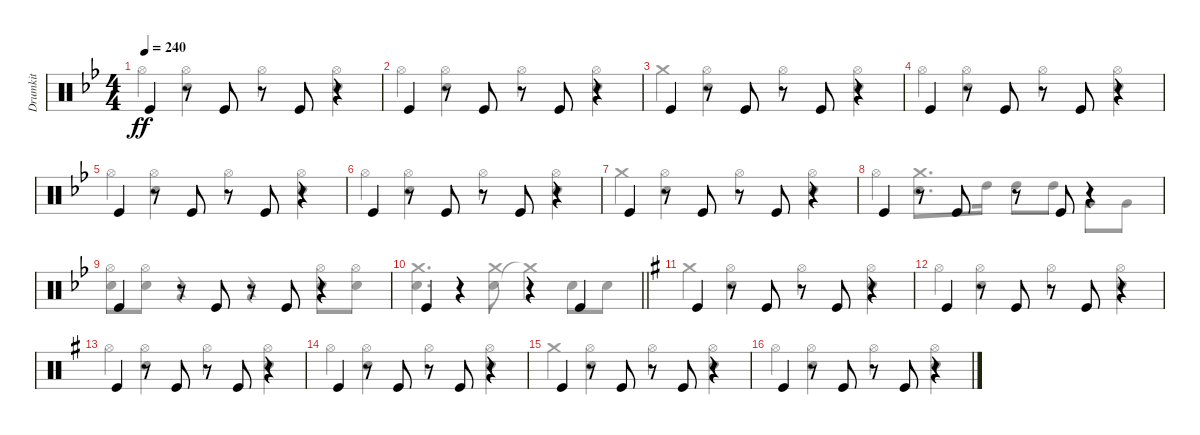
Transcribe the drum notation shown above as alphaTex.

\track ("Drumkit" "Drumkit") {instrument percussion}
\staff {score}
\articulation defaults
\voice
\ts (4 4)
\tempo 240
\clef neutral
\ks bb "Kick (hit)".4{dy ff}
r.8 "Kick (hit)".8 r.8 "Kick (hit)".8 r.4 |
"Kick (hit)".4 r.8 "Kick (hit)".8 r.8 "Kick (hit)".8 r.4 |
"Kick (hit)".4 r.8 "Kick (hit)".8 r.8 "Kick (hit)".8 r.4 |
"Kick (hit)".4 r.8 "Kick (hit)".8 r.8 "Kick (hit)".8 r.4 |
"Kick (hit)".4 r.8 "Kick (hit)".8 r.8 "Kick (hit)".8 r.4 |
"Kick (hit)".4 r.8 "Kick (hit)".8 r.8 "Kick (hit)".8 r.4 |
"Kick (hit)".4 r.8 "Kick (hit)".8 r.8 "Kick (hit)".8 r.4 |
"Kick (hit)".4 r.8 "Kick (hit)".8 r.8 "Kick (hit)".8 r.4 |
"Kick (hit)".4 r.8 "Kick (hit)".8 r.8 "Kick (hit)".8 r.4 |
\barLineRight lightlight "Kick (hit)".4
r.4 r.4 "Kick (hit)".4 |
\section ("" "")
\ks g "Kick (hit)".4
r.8 "Kick (hit)".8 r.8 "Kick (hit)".8 r.4 |
"Kick (hit)".4 r.8 "Kick (hit)".8 r.8 "Kick (hit)".8 r.4 |
"Kick (hit)".4 r.8 "Kick (hit)".8 r.8 "Kick (hit)".8 r.4 |
"Kick (hit)".4 r.8 "Kick (hit)".8 r.8 "Kick (hit)".8 r.4 |
"Kick (hit)".4 r.8 "Kick (hit)".8 r.8 "Kick (hit)".8 r.4 |
"Kick (hit)".4 r.8 "Kick (hit)".8 r.8 "Kick (hit)".8 r.4
\voice
\clef neutral
\ottava regular
\simile none
\ks bb "Hi-Hat (open)".4{dy ff}
("Hi-Hat (open)" "Snare (hit) 2").4 "Hi-Hat (open)".4 ("Hi-Hat (open)" "Snare (hit) 2").4 |
"Hi-Hat (open)".4 ("Hi-Hat (open)" "Snare (hit) 2").4 "Hi-Hat (open)".4 ("Hi-Hat (open)" "Snare (hit) 2").4 |
"Crash medium (hit)".4 ("Hi-Hat (open)" "Snare (hit) 2").4 "Hi-Hat (open)".4 ("Hi-Hat (open)" "Snare (hit) 2").4 |
"Hi-Hat (open)".4 ("Hi-Hat (open)" "Snare (hit) 2").4 "Hi-Hat (open)".4 ("Hi-Hat (open)" "Snare (hit) 2").4 |
"Hi-Hat (open)".4 ("Hi-Hat (open)" "Snare (hit) 2").4 "Hi-Hat (open)".4 ("Hi-Hat (open)" "Snare (hit) 2").4 |
"Hi-Hat (open)".4 ("Hi-Hat (open)" "Snare (hit) 2").4 "Hi-Hat (open)".4 ("Hi-Hat (open)" "Snare (hit) 2").4 |
"Crash medium (hit)".4 ("Hi-Hat (open)" "Snare (hit) 2").4 "Hi-Hat (open)".4 ("Hi-Hat (open)" "Snare (hit) 2").4 |
"Hi-Hat (open)".4 ("Snare (hit) 2" "Crash medium (hit)").8{d} "High Tom (hit)".16 "High Tom (hit)".8 "High Tom (hit)".8 "Very Low Tom (hit)".8 "Very Low Tom (hit)".8 |
("Snare (hit) 2" "Hi-Hat (open)").8 ("Snare (hit) 2" "Hi-Hat (open)").8 r.4 r.4 ("Hi-Hat (open)" "Snare (hit) 2").8 ("Hi-Hat (open)" "Snare (hit) 2").8 |
\barLineRight lightlight
("Snare (hit) 2" "Crash medium (hit)").4{d} ("Snare (hit) 2" "Crash medium (hit)").8 "Crash medium (hit)"{t}.4 "Snare (hit) 2".8 "Snare (hit) 2".8 |
\ks g "Crash medium (hit)".4
("Hi-Hat (open)" "Snare (hit) 2").4 "Hi-Hat (open)".4 ("Hi-Hat (open)" "Snare (hit) 2").4 |
"Hi-Hat (open)".4 ("Hi-Hat (open)" "Snare (hit) 2").4 "Hi-Hat (open)".4 ("Hi-Hat (open)" "Snare (hit) 2").4 |
"Hi-Hat (open)".4 ("Hi-Hat (open)" "Snare (hit) 2").4 "Hi-Hat (open)".4 ("Hi-Hat (open)" "Snare (hit) 2").4 |
"Hi-Hat (open)".4 ("Hi-Hat (open)" "Snare (hit) 2").4 "Hi-Hat (open)".4 ("Hi-Hat (open)" "Snare (hit) 2").4 |
"Crash medium (hit)".4 ("Hi-Hat (open)" "Snare (hit) 2").4 "Hi-Hat (open)".4 ("Hi-Hat (open)" "Snare (hit) 2").4 |
"Hi-Hat (open)".4 ("Hi-Hat (open)" "Snare (hit) 2").4 "Hi-Hat (open)".4 ("Hi-Hat (open)" "Snare (hit) 2").4
